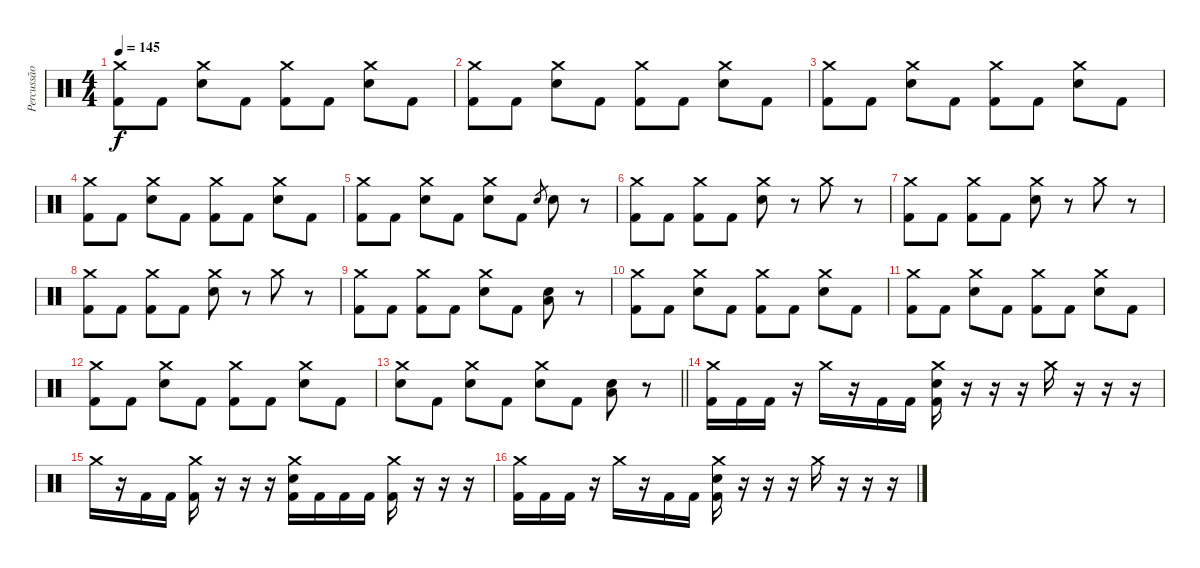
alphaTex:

\track ("Percussão" "Percussão") {instrument percussion}
\staff {score}
\articulation defaults
\ts (4 4)
\tempo 145
\clef neutral
\ks c
("Crash medium (hit)" "Kick (hit) 2").8{dy f} "Kick (hit) 2".8 ("Crash medium (hit)" "Electric Snare (hit)").8 "Kick (hit) 2".8 ("Crash medium (hit)" "Kick (hit) 2").8 "Kick (hit) 2".8 ("Crash medium (hit)" "Electric Snare (hit)").8 "Kick (hit) 2".8 |
("Crash medium (hit)" "Kick (hit) 2").8 "Kick (hit) 2".8 ("Crash medium (hit)" "Electric Snare (hit)").8 "Kick (hit) 2".8 ("Crash medium (hit)" "Kick (hit) 2").8 "Kick (hit) 2".8 ("Crash medium (hit)" "Electric Snare (hit)").8 "Kick (hit) 2".8 |
("Crash medium (hit)" "Kick (hit) 2").8 "Kick (hit) 2".8 ("Crash medium (hit)" "Electric Snare (hit)").8 "Kick (hit) 2".8 ("Crash medium (hit)" "Kick (hit) 2").8 "Kick (hit) 2".8 ("Crash medium (hit)" "Electric Snare (hit)").8 "Kick (hit) 2".8 |
("Crash medium (hit)" "Kick (hit) 2").8 "Kick (hit) 2".8 ("Crash medium (hit)" "Electric Snare (hit)").8 "Kick (hit) 2".8 ("Crash medium (hit)" "Kick (hit) 2").8 "Kick (hit) 2".8 ("Crash medium (hit)" "Electric Snare (hit)").8 "Kick (hit) 2".8 |
("Crash medium (hit)" "Kick (hit) 2").8 "Kick (hit) 2".8 ("Crash medium (hit)" "Electric Snare (hit)").8 "Kick (hit) 2".8 ("Crash medium (hit)" "Electric Snare (hit)").8 "Kick (hit) 2".8 "Electric Snare (hit)".8{gr} "Electric Snare (hit)".8 r.8 |
("Crash medium (hit)" "Kick (hit) 2").8 "Kick (hit) 2".8 ("Crash medium (hit)" "Kick (hit) 2").8 "Kick (hit) 2".8 ("Crash medium (hit)" "Electric Snare (hit)").8 r.8 "Crash medium (hit)".8 r.8 |
("Crash medium (hit)" "Kick (hit) 2").8 "Kick (hit) 2".8 ("Crash medium (hit)" "Kick (hit) 2").8 "Kick (hit) 2".8 ("Crash medium (hit)" "Electric Snare (hit)").8 r.8 "Crash medium (hit)".8 r.8 |
("Crash medium (hit)" "Kick (hit) 2").8 "Kick (hit) 2".8 ("Crash medium (hit)" "Kick (hit) 2").8 "Kick (hit) 2".8 ("Crash medium (hit)" "Electric Snare (hit)").8 r.8 "Crash medium (hit)".8 r.8 |
("Crash medium (hit)" "Kick (hit) 2").8 "Kick (hit) 2".8 ("Crash medium (hit)" "Kick (hit) 2").8 "Kick (hit) 2".8 ("Crash medium (hit)" "Electric Snare (hit)").8 "Kick (hit) 2".8 ("Electric Snare (hit)" "Low Tom (hit)").8 r.8 |
("Crash medium (hit)" "Kick (hit) 2").8 "Kick (hit) 2".8 ("Crash medium (hit)" "Electric Snare (hit)").8 "Kick (hit) 2".8 ("Crash medium (hit)" "Kick (hit) 2").8 "Kick (hit) 2".8 ("Crash medium (hit)" "Electric Snare (hit)").8 "Kick (hit) 2".8 |
("Crash medium (hit)" "Kick (hit) 2").8 "Kick (hit) 2".8 ("Crash medium (hit)" "Electric Snare (hit)").8 "Kick (hit) 2".8 ("Crash medium (hit)" "Kick (hit) 2").8 "Kick (hit) 2".8 ("Crash medium (hit)" "Electric Snare (hit)").8 "Kick (hit) 2".8 |
("Crash medium (hit)" "Kick (hit) 2").8 "Kick (hit) 2".8 ("Crash medium (hit)" "Electric Snare (hit)").8 "Kick (hit) 2".8 ("Crash medium (hit)" "Kick (hit) 2").8 "Kick (hit) 2".8 ("Crash medium (hit)" "Electric Snare (hit)").8 "Kick (hit) 2".8 |
\barLineRight lightlight
("Crash medium (hit)" "Electric Snare (hit)").8 "Kick (hit) 2".8 ("Crash medium (hit)" "Electric Snare (hit)").8 "Kick (hit) 2".8 ("Crash medium (hit)" "Electric Snare (hit)").8 "Kick (hit) 2".8 ("Electric Snare (hit)" "Low Tom (hit)").8 r.8 |
("Crash medium (hit)" "Kick (hit) 2").16 "Kick (hit) 2".16 "Kick (hit) 2".16 r.16 "Crash medium (hit)".16 r.16 "Kick (hit) 2".16 "Kick (hit) 2".16 ("Crash medium (hit)" "Electric Snare (hit)" "Kick (hit) 2").16 r.16 r.16 r.16 "Crash medium (hit)".16 r.16 r.16 r.16 |
"Crash medium (hit)".16 r.16 "Kick (hit) 2".16 "Kick (hit) 2".16 ("Crash medium (hit)" "Kick (hit) 2").16 r.16 r.16 r.16 ("Crash medium (hit)" "Electric Snare (hit)" "Kick (hit) 2").16 "Kick (hit) 2".16 "Kick (hit) 2".16 "Kick (hit) 2".16 ("Crash medium (hit)" "Kick (hit) 2").16 r.16 r.16 r.16 |
("Crash medium (hit)" "Kick (hit) 2").16 "Kick (hit) 2".16 "Kick (hit) 2".16 r.16 "Crash medium (hit)".16 r.16 "Kick (hit) 2".16 "Kick (hit) 2".16 ("Crash medium (hit)" "Electric Snare (hit)" "Kick (hit) 2").16 r.16 r.16 r.16 "Crash medium (hit)".16 r.16 r.16 r.16
